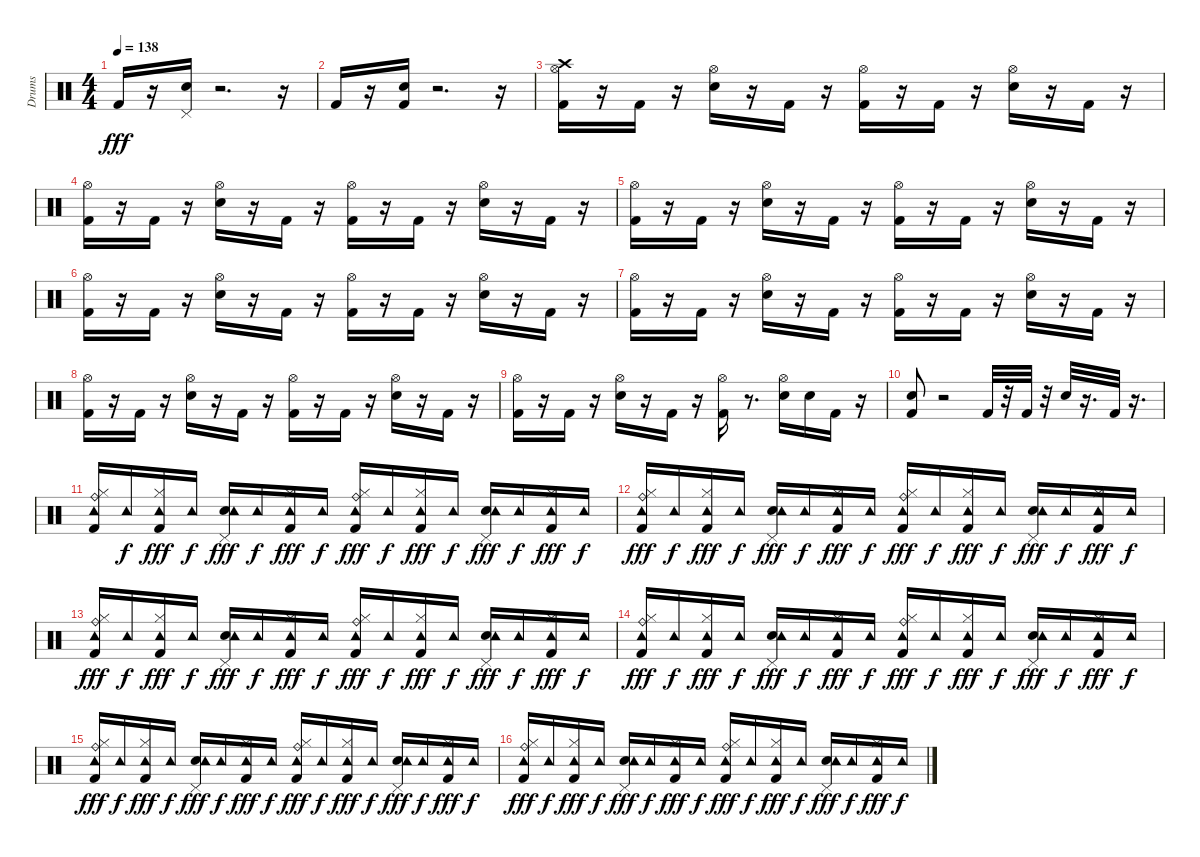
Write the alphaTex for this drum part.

\track ("Drums" "Drums") {instrument percussion}
\staff {score}
\articulation defaults
\ts (4 4)
\tempo 138
\clef neutral
\ks c "Kick (hit) 2".16{dy fff}
r.16 ("Snare (hit) 2" "Pedal Hi-Hat (hit)").16 r.2{d} r.16 |
"Kick (hit) 2".16 r.16 ("Kick (hit) 2" "Snare (hit) 2").16 r.2{d} r.16 |
("Kick (hit) 2" "Hi-Hat (open)" "Crash high (hit)").16 r.16 "Kick (hit) 2".16 r.16 ("Snare (hit) 2" "Hi-Hat (open)").16 r.16 "Kick (hit) 2".16 r.16 ("Kick (hit) 2" "Hi-Hat (open)").16 r.16 "Kick (hit) 2".16 r.16 ("Snare (hit) 2" "Hi-Hat (open)").16 r.16 "Kick (hit) 2".16 r.16 |
("Kick (hit) 2" "Hi-Hat (open)").16 r.16 "Kick (hit) 2".16 r.16 ("Snare (hit) 2" "Hi-Hat (open)").16 r.16 "Kick (hit) 2".16 r.16 ("Kick (hit) 2" "Hi-Hat (open)").16 r.16 "Kick (hit) 2".16 r.16 ("Snare (hit) 2" "Hi-Hat (open)").16 r.16 "Kick (hit) 2".16 r.16 |
("Kick (hit) 2" "Hi-Hat (open)").16 r.16 "Kick (hit) 2".16 r.16 ("Snare (hit) 2" "Hi-Hat (open)").16 r.16 "Kick (hit) 2".16 r.16 ("Kick (hit) 2" "Hi-Hat (open)").16 r.16 "Kick (hit) 2".16 r.16 ("Snare (hit) 2" "Hi-Hat (open)").16 r.16 "Kick (hit) 2".16 r.16 |
("Kick (hit) 2" "Hi-Hat (open)").16 r.16 "Kick (hit) 2".16 r.16 ("Snare (hit) 2" "Hi-Hat (open)").16 r.16 "Kick (hit) 2".16 r.16 ("Kick (hit) 2" "Hi-Hat (open)").16 r.16 "Kick (hit) 2".16 r.16 ("Snare (hit) 2" "Hi-Hat (open)").16 r.16 "Kick (hit) 2".16 r.16 |
("Kick (hit) 2" "Hi-Hat (open)").16 r.16 "Kick (hit) 2".16 r.16 ("Snare (hit) 2" "Hi-Hat (open)").16 r.16 "Kick (hit) 2".16 r.16 ("Kick (hit) 2" "Hi-Hat (open)").16 r.16 "Kick (hit) 2".16 r.16 ("Snare (hit) 2" "Hi-Hat (open)").16 r.16 "Kick (hit) 2".16 r.16 |
("Kick (hit) 2" "Hi-Hat (open)").16 r.16 "Kick (hit) 2".16 r.16 ("Snare (hit) 2" "Hi-Hat (open)").16 r.16 "Kick (hit) 2".16 r.16 ("Kick (hit) 2" "Hi-Hat (open)").16 r.16 "Kick (hit) 2".16 r.16 ("Snare (hit) 2" "Hi-Hat (open)").16 r.16 "Kick (hit) 2".16 r.16 |
("Kick (hit) 2" "Hi-Hat (open)").16 r.16 "Kick (hit) 2".16 r.16 ("Snare (hit) 2" "Hi-Hat (open)").16 r.16 "Kick (hit) 2".16 r.16 ("Kick (hit) 2" "Hi-Hat (open)").16 r.8{d} ("Snare (hit) 2" "Hi-Hat (open)").16 "Snare (hit) 2".16 "Kick (hit) 2".16 r.16 |
("Kick (hit) 2" "Snare (hit) 2").8 r.2 "Kick (hit) 2".32 r.32 "Kick (hit) 2".32 r.32 "Snare (hit) 2".32 r.16{d} "Kick (hit) 2".32 r.16{d} |
("Kick (hit) 2" "Hi-Hat (closed)" "Ride (bell)" "Tambourine (hit)").16 "Tambourine (hit)".16{dy f} ("Kick (hit) 2" "Hi-Hat (closed)" "Tambourine (hit)").16{dy fff} "Tambourine (hit)".16{dy f} ("Snare (hit) 2" "Pedal Hi-Hat (hit)" "Tambourine (hit)").16{dy fff} "Tambourine (hit)".16{dy f} ("Kick (hit) 2" "Hi-Hat (closed)" "Tambourine (hit)").16{dy fff} "Tambourine (hit)".16{dy f} ("Kick (hit) 2" "Hi-Hat (closed)" "Ride (bell)" "Tambourine (hit)").16{dy fff} "Tambourine (hit)".16{dy f} ("Kick (hit) 2" "Hi-Hat (closed)" "Tambourine (hit)").16{dy fff} "Tambourine (hit)".16{dy f} ("Snare (hit) 2" "Pedal Hi-Hat (hit)" "Tambourine (hit)").16{dy fff} "Tambourine (hit)".16{dy f} ("Kick (hit) 2" "Hi-Hat (closed)" "Tambourine (hit)").16{dy fff} "Tambourine (hit)".16{dy f} |
("Kick (hit) 2" "Hi-Hat (closed)" "Ride (bell)" "Tambourine (hit)").16{dy fff} "Tambourine (hit)".16{dy f} ("Kick (hit) 2" "Hi-Hat (closed)" "Tambourine (hit)").16{dy fff} "Tambourine (hit)".16{dy f} ("Snare (hit) 2" "Pedal Hi-Hat (hit)" "Tambourine (hit)").16{dy fff} "Tambourine (hit)".16{dy f} ("Kick (hit) 2" "Hi-Hat (closed)" "Tambourine (hit)").16{dy fff} "Tambourine (hit)".16{dy f} ("Kick (hit) 2" "Hi-Hat (closed)" "Ride (bell)" "Tambourine (hit)").16{dy fff} "Tambourine (hit)".16{dy f} ("Kick (hit) 2" "Hi-Hat (closed)" "Tambourine (hit)").16{dy fff} "Tambourine (hit)".16{dy f} ("Snare (hit) 2" "Pedal Hi-Hat (hit)" "Tambourine (hit)").16{dy fff} "Tambourine (hit)".16{dy f} ("Kick (hit) 2" "Hi-Hat (closed)" "Tambourine (hit)").16{dy fff} "Tambourine (hit)".16{dy f} |
("Kick (hit) 2" "Hi-Hat (closed)" "Ride (bell)" "Tambourine (hit)").16{dy fff} "Tambourine (hit)".16{dy f} ("Kick (hit) 2" "Hi-Hat (closed)" "Tambourine (hit)").16{dy fff} "Tambourine (hit)".16{dy f} ("Snare (hit) 2" "Pedal Hi-Hat (hit)" "Tambourine (hit)").16{dy fff} "Tambourine (hit)".16{dy f} ("Kick (hit) 2" "Hi-Hat (closed)" "Tambourine (hit)").16{dy fff} "Tambourine (hit)".16{dy f} ("Kick (hit) 2" "Hi-Hat (closed)" "Ride (bell)" "Tambourine (hit)").16{dy fff} "Tambourine (hit)".16{dy f} ("Kick (hit) 2" "Hi-Hat (closed)" "Tambourine (hit)").16{dy fff} "Tambourine (hit)".16{dy f} ("Snare (hit) 2" "Pedal Hi-Hat (hit)" "Tambourine (hit)").16{dy fff} "Tambourine (hit)".16{dy f} ("Kick (hit) 2" "Hi-Hat (closed)" "Tambourine (hit)").16{dy fff} "Tambourine (hit)".16{dy f} |
("Kick (hit) 2" "Hi-Hat (closed)" "Ride (bell)" "Tambourine (hit)").16{dy fff} "Tambourine (hit)".16{dy f} ("Kick (hit) 2" "Hi-Hat (closed)" "Tambourine (hit)").16{dy fff} "Tambourine (hit)".16{dy f} ("Snare (hit) 2" "Pedal Hi-Hat (hit)" "Tambourine (hit)").16{dy fff} "Tambourine (hit)".16{dy f} ("Kick (hit) 2" "Hi-Hat (closed)" "Tambourine (hit)").16{dy fff} "Tambourine (hit)".16{dy f} ("Kick (hit) 2" "Hi-Hat (closed)" "Ride (bell)" "Tambourine (hit)").16{dy fff} "Tambourine (hit)".16{dy f} ("Kick (hit) 2" "Hi-Hat (closed)" "Tambourine (hit)").16{dy fff} "Tambourine (hit)".16{dy f} ("Snare (hit) 2" "Pedal Hi-Hat (hit)" "Tambourine (hit)").16{dy fff} "Tambourine (hit)".16{dy f} ("Kick (hit) 2" "Hi-Hat (closed)" "Tambourine (hit)").16{dy fff} "Tambourine (hit)".16{dy f} |
("Kick (hit) 2" "Hi-Hat (closed)" "Ride (bell)" "Tambourine (hit)").16{dy fff} "Tambourine (hit)".16{dy f} ("Kick (hit) 2" "Hi-Hat (closed)" "Tambourine (hit)").16{dy fff} "Tambourine (hit)".16{dy f} ("Snare (hit) 2" "Pedal Hi-Hat (hit)" "Tambourine (hit)").16{dy fff} "Tambourine (hit)".16{dy f} ("Kick (hit) 2" "Hi-Hat (closed)" "Tambourine (hit)").16{dy fff} "Tambourine (hit)".16{dy f} ("Kick (hit) 2" "Hi-Hat (closed)" "Ride (bell)" "Tambourine (hit)").16{dy fff} "Tambourine (hit)".16{dy f} ("Kick (hit) 2" "Hi-Hat (closed)" "Tambourine (hit)").16{dy fff} "Tambourine (hit)".16{dy f} ("Snare (hit) 2" "Pedal Hi-Hat (hit)" "Tambourine (hit)").16{dy fff} "Tambourine (hit)".16{dy f} ("Kick (hit) 2" "Hi-Hat (closed)" "Tambourine (hit)").16{dy fff} "Tambourine (hit)".16{dy f} |
("Kick (hit) 2" "Hi-Hat (closed)" "Ride (bell)" "Tambourine (hit)").16{dy fff} "Tambourine (hit)".16{dy f} ("Kick (hit) 2" "Hi-Hat (closed)" "Tambourine (hit)").16{dy fff} "Tambourine (hit)".16{dy f} ("Snare (hit) 2" "Pedal Hi-Hat (hit)" "Tambourine (hit)").16{dy fff} "Tambourine (hit)".16{dy f} ("Kick (hit) 2" "Hi-Hat (closed)" "Tambourine (hit)").16{dy fff} "Tambourine (hit)".16{dy f} ("Kick (hit) 2" "Hi-Hat (closed)" "Ride (bell)" "Tambourine (hit)").16{dy fff} "Tambourine (hit)".16{dy f} ("Kick (hit) 2" "Hi-Hat (closed)" "Tambourine (hit)").16{dy fff} "Tambourine (hit)".16{dy f} ("Snare (hit) 2" "Pedal Hi-Hat (hit)" "Tambourine (hit)").16{dy fff} "Tambourine (hit)".16{dy f} ("Kick (hit) 2" "Hi-Hat (closed)" "Tambourine (hit)").16{dy fff} "Tambourine (hit)".16{dy f}
